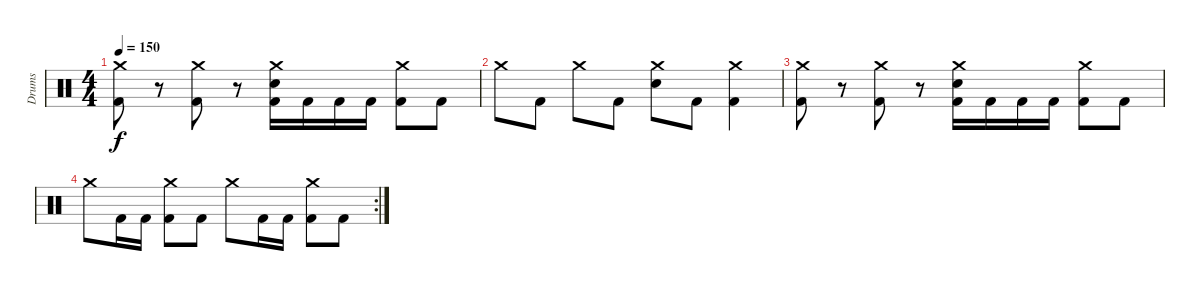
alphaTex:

\track ("Drums" "Drums") {instrument percussion}
\staff {score}
\articulation defaults
\ts (4 4)
\tempo 150
\clef neutral
\ks c
("Crash medium (hit)" "Kick (hit) 2").8{dy f} r.8 ("Crash medium (hit)" "Kick (hit) 2").8 r.8 ("Crash medium (hit)" "Electric Snare (hit)" "Kick (hit) 2").16 "Kick (hit) 2".16 "Kick (hit) 2".16 "Kick (hit) 2".16 ("Crash medium (hit)" "Kick (hit) 2").8 "Kick (hit) 2".8 |
"Crash medium (hit)".8 "Kick (hit) 2".8 "Crash medium (hit)".8 "Kick (hit) 2".8 ("Crash medium (hit)" "Electric Snare (hit)").8 "Kick (hit) 2".8 ("Crash medium (hit)" "Kick (hit) 2").4 |
("Crash medium (hit)" "Kick (hit) 2").8 r.8 ("Crash medium (hit)" "Kick (hit) 2").8 r.8 ("Crash medium (hit)" "Electric Snare (hit)" "Kick (hit) 2").16 "Kick (hit) 2".16 "Kick (hit) 2".16 "Kick (hit) 2".16 ("Crash medium (hit)" "Kick (hit) 2").8 "Kick (hit) 2".8 |
\rc 2 "Crash medium (hit)".8 "Kick (hit) 2".16 "Kick (hit) 2".16
("Crash medium (hit)" "Kick (hit) 2").8 "Kick (hit) 2".8 "Crash medium (hit)".8 "Kick (hit) 2".16 "Kick (hit) 2".16 ("Crash medium (hit)" "Kick (hit) 2").8 "Kick (hit) 2".8
